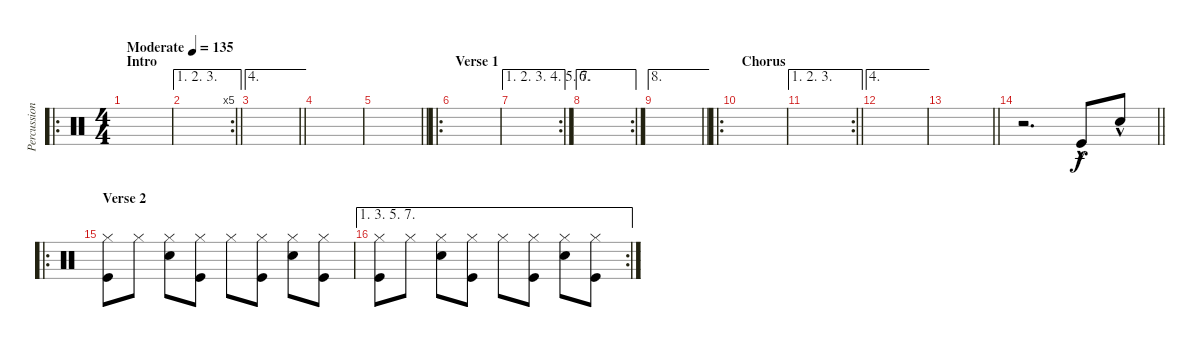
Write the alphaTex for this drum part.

\track ("Percussions" "Percussion") {instrument percussion}
\staff {score}
\articulation defaults
\ro
\ts (4 4)
\section ("" "Intro")
\tempo (135 "Moderate")
\clef neutral
\ks c
|
\ae (1 2 3)
\rc 5
\barLineRight lightlight
|
\ae 4
\barLineRight lightlight
|
|
\barLineRight lightlight
|
\ro
\section ("" "Verse 1")
|
\ae (1 2 3 4 5 7)
\rc 2
|
\ae 6
\rc 2
|
\ae 8
\barLineRight lightlight
|
\ro
\section ("" "Chorus")
|
\ae (1 2 3)
\rc 2
\barLineRight lightlight
|
\ae 4
|
\barLineRight lightlight
|
\barLineRight lightlight
r.2{d} "Kick (hit)"{hac}.8 "Snare (hit) 2"{hac}.8 |
\ro
\section ("" "Verse 2")
("Hi-Hat (closed)" "Kick (hit)").8{dy f} "Hi-Hat (closed)".8 ("Hi-Hat (closed)" "Snare (hit) 2").8 ("Hi-Hat (closed)" "Kick (hit)").8 "Hi-Hat (closed)".8 ("Hi-Hat (closed)" "Kick (hit)").8 ("Hi-Hat (closed)" "Snare (hit) 2").8 ("Hi-Hat (closed)" "Kick (hit)").8 |
\ae (1 3 5 7)
\rc 2
("Hi-Hat (closed)" "Kick (hit)").8 "Hi-Hat (closed)".8 ("Hi-Hat (closed)" "Snare (hit) 2").8 ("Hi-Hat (closed)" "Kick (hit)").8 "Hi-Hat (closed)".8 ("Hi-Hat (closed)" "Kick (hit)").8 ("Hi-Hat (closed)" "Snare (hit) 2").8 ("Hi-Hat (closed)" "Kick (hit)").8
